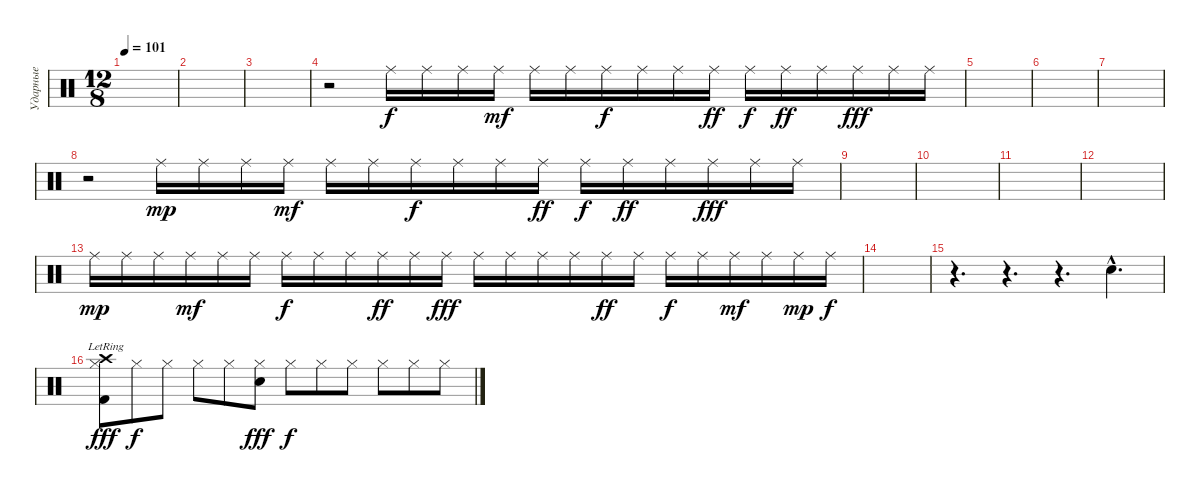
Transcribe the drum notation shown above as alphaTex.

\track ("Ударные" "Ударные") {instrument percussion}
\staff {score}
\articulation defaults
\ts (12 8)
\tempo 101
\clef neutral
\ks c
|
|
|
r.2 "Ride (middle)".16 "Ride (middle)".16 "Ride (middle)".16 "Ride (middle)".16{dy mf} "Ride (middle)".16 "Ride (middle)".16 "Ride (middle)".16{dy f} "Ride (middle)".16 "Ride (middle)".16 "Ride (middle)".16{dy ff} "Ride (middle)".16{dy f} "Ride (middle)".16{dy ff} "Ride (middle)".16 "Ride (middle)".16{dy fff} "Ride (middle)".16 "Ride (middle)".16 |
|
|
|
r.2 "Ride (middle)".16{dy mp} "Ride (middle)".16 "Ride (middle)".16 "Ride (middle)".16{dy mf} "Ride (middle)".16 "Ride (middle)".16 "Ride (middle)".16{dy f} "Ride (middle)".16 "Ride (middle)".16 "Ride (middle)".16{dy ff} "Ride (middle)".16{dy f} "Ride (middle)".16{dy ff} "Ride (middle)".16 "Ride (middle)".16{dy fff} "Ride (middle)".16 "Ride (middle)".16 |
|
|
|
|
"Ride (middle)".16{dy mp} "Ride (middle)".16 "Ride (middle)".16 "Ride (middle)".16{dy mf} "Ride (middle)".16 "Ride (middle)".16 "Ride (middle)".16{dy f} "Ride (middle)".16 "Ride (middle)".16 "Ride (middle)".16{dy ff} "Ride (middle)".16 "Ride (middle)".16{dy fff} "Ride (middle)".16 "Ride (middle)".16 "Ride (middle)".16 "Ride (middle)".16 "Ride (middle)".16{dy ff} "Ride (middle)".16 "Ride (middle)".16{dy f} "Ride (middle)".16 "Ride (middle)".16{dy mf} "Ride (middle)".16 "Ride (middle)".16{dy mp} "Ride (middle)".16{dy f} |
|
r.4{d} r.4{d} r.4{d} "Snare (hit) 2"{hac}.4{d} |
("Hi-Hat (closed)" "Kick (hit) 2" "Crash high (hit)"{lr}).8{dy fff} "Hi-Hat (closed)".8{dy f} "Hi-Hat (closed)".8 "Hi-Hat (closed)".8 "Hi-Hat (closed)".8 ("Hi-Hat (closed)" "Snare (hit) 2").8{dy fff} "Hi-Hat (closed)".8{dy f} "Hi-Hat (closed)".8 "Hi-Hat (closed)".8 "Hi-Hat (closed)".8 "Hi-Hat (closed)".8 "Hi-Hat (closed)".8
